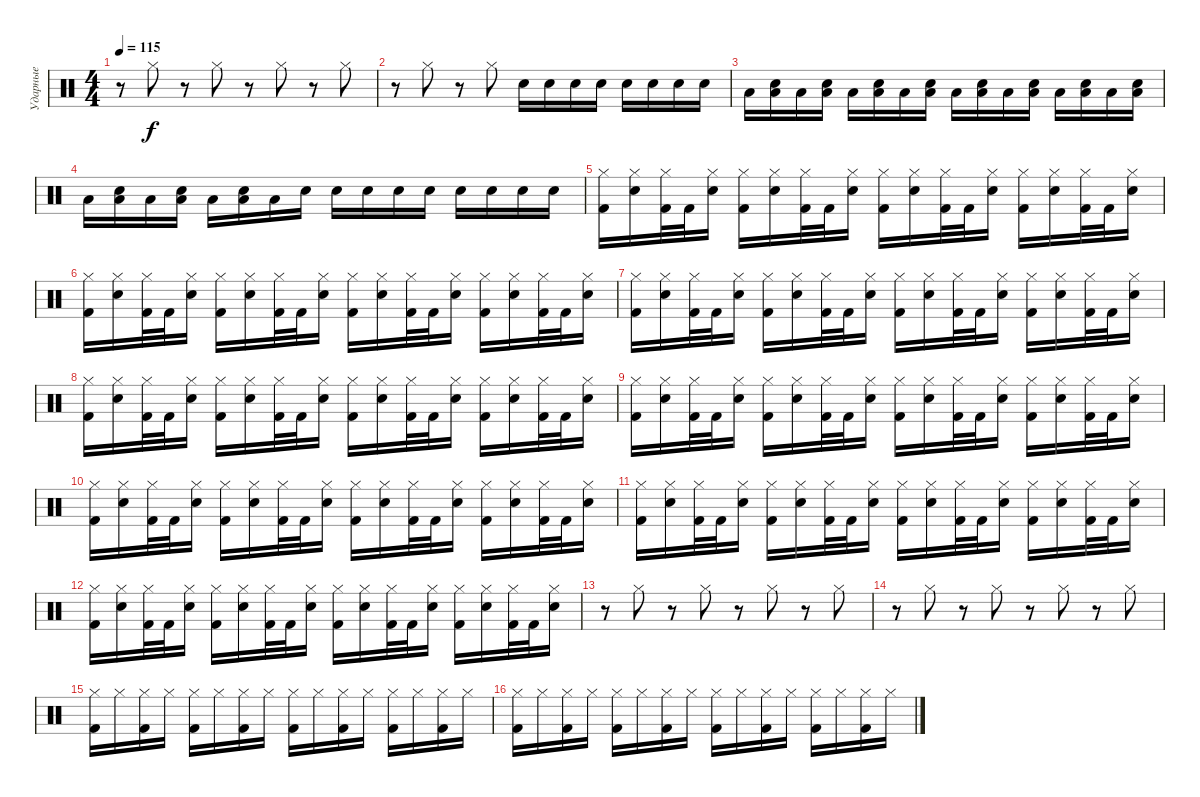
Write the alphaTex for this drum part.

\track ("Ударные" "Ударные") {instrument percussion}
\staff {score}
\articulation defaults
\ts (4 4)
\tempo 115
\clef neutral
\ks c
r.8{dy f} "Hi-Hat (closed)".8 r.8 "Hi-Hat (closed)".8 r.8 "Hi-Hat (closed)".8 r.8 "Hi-Hat (closed)".8 |
r.8 "Hi-Hat (closed)".8 r.8 "Hi-Hat (closed)".8 "Electric Snare (hit)".16 "Electric Snare (hit)".16 "Electric Snare (hit)".16 "Electric Snare (hit)".16 "Electric Snare (hit)".16 "Electric Snare (hit)".16 "Electric Snare (hit)".16 "Electric Snare (hit)".16 |
"Low Floor Tom (hit)".16 ("Low Floor Tom (hit)" "Electric Snare (hit)").16 "Low Floor Tom (hit)".16 ("Low Floor Tom (hit)" "Electric Snare (hit)").16 "Low Floor Tom (hit)".16 ("Low Floor Tom (hit)" "Electric Snare (hit)").16 "Low Floor Tom (hit)".16 ("Low Floor Tom (hit)" "Electric Snare (hit)").16 "Low Floor Tom (hit)".16 ("Low Floor Tom (hit)" "Electric Snare (hit)").16 "Low Floor Tom (hit)".16 ("Low Floor Tom (hit)" "Electric Snare (hit)").16 "Low Floor Tom (hit)".16 ("Low Floor Tom (hit)" "Electric Snare (hit)").16 "Low Floor Tom (hit)".16 ("Low Floor Tom (hit)" "Electric Snare (hit)").16 |
"Low Floor Tom (hit)".16 ("Low Floor Tom (hit)" "Electric Snare (hit)").16 "Low Floor Tom (hit)".16 ("Low Floor Tom (hit)" "Electric Snare (hit)").16 "Low Floor Tom (hit)".16 ("Low Floor Tom (hit)" "Electric Snare (hit)").16 "Low Floor Tom (hit)".16 "Electric Snare (hit)".16 "Electric Snare (hit)".16 "Electric Snare (hit)".16 "Electric Snare (hit)".16 "Electric Snare (hit)".16 "Electric Snare (hit)".16 "Electric Snare (hit)".16 "Electric Snare (hit)".16 "Electric Snare (hit)".16 |
("Hi-Hat (closed)" "Kick (hit) 2").16 ("Hi-Hat (closed)" "Electric Snare (hit)").16 ("Hi-Hat (closed)" "Kick (hit) 2").32 "Kick (hit) 2".32 ("Hi-Hat (closed)" "Electric Snare (hit)").16 ("Hi-Hat (closed)" "Kick (hit) 2").16 ("Hi-Hat (closed)" "Electric Snare (hit)").16 ("Hi-Hat (closed)" "Kick (hit) 2").32 "Kick (hit) 2".32 ("Hi-Hat (closed)" "Electric Snare (hit)").16 ("Hi-Hat (closed)" "Kick (hit) 2").16 ("Hi-Hat (closed)" "Electric Snare (hit)").16 ("Hi-Hat (closed)" "Kick (hit) 2").32 "Kick (hit) 2".32 ("Hi-Hat (closed)" "Electric Snare (hit)").16 ("Hi-Hat (closed)" "Kick (hit) 2").16 ("Hi-Hat (closed)" "Electric Snare (hit)").16 ("Hi-Hat (closed)" "Kick (hit) 2").32 "Kick (hit) 2".32 ("Hi-Hat (closed)" "Electric Snare (hit)").16 |
("Hi-Hat (closed)" "Kick (hit) 2").16 ("Hi-Hat (closed)" "Electric Snare (hit)").16 ("Hi-Hat (closed)" "Kick (hit) 2").32 "Kick (hit) 2".32 ("Hi-Hat (closed)" "Electric Snare (hit)").16 ("Hi-Hat (closed)" "Kick (hit) 2").16 ("Hi-Hat (closed)" "Electric Snare (hit)").16 ("Hi-Hat (closed)" "Kick (hit) 2").32 "Kick (hit) 2".32 ("Hi-Hat (closed)" "Electric Snare (hit)").16 ("Hi-Hat (closed)" "Kick (hit) 2").16 ("Hi-Hat (closed)" "Electric Snare (hit)").16 ("Hi-Hat (closed)" "Kick (hit) 2").32 "Kick (hit) 2".32 ("Hi-Hat (closed)" "Electric Snare (hit)").16 ("Hi-Hat (closed)" "Kick (hit) 2").16 ("Hi-Hat (closed)" "Electric Snare (hit)").16 ("Hi-Hat (closed)" "Kick (hit) 2").32 "Kick (hit) 2".32 ("Hi-Hat (closed)" "Electric Snare (hit)").16 |
("Hi-Hat (closed)" "Kick (hit) 2").16 ("Hi-Hat (closed)" "Electric Snare (hit)").16 ("Hi-Hat (closed)" "Kick (hit) 2").32 "Kick (hit) 2".32 ("Hi-Hat (closed)" "Electric Snare (hit)").16 ("Hi-Hat (closed)" "Kick (hit) 2").16 ("Hi-Hat (closed)" "Electric Snare (hit)").16 ("Hi-Hat (closed)" "Kick (hit) 2").32 "Kick (hit) 2".32 ("Hi-Hat (closed)" "Electric Snare (hit)").16 ("Hi-Hat (closed)" "Kick (hit) 2").16 ("Hi-Hat (closed)" "Electric Snare (hit)").16 ("Hi-Hat (closed)" "Kick (hit) 2").32 "Kick (hit) 2".32 ("Hi-Hat (closed)" "Electric Snare (hit)").16 ("Hi-Hat (closed)" "Kick (hit) 2").16 ("Hi-Hat (closed)" "Electric Snare (hit)").16 ("Hi-Hat (closed)" "Kick (hit) 2").32 "Kick (hit) 2".32 ("Hi-Hat (closed)" "Electric Snare (hit)").16 |
("Hi-Hat (closed)" "Kick (hit) 2").16 ("Hi-Hat (closed)" "Electric Snare (hit)").16 ("Hi-Hat (closed)" "Kick (hit) 2").32 "Kick (hit) 2".32 ("Hi-Hat (closed)" "Electric Snare (hit)").16 ("Hi-Hat (closed)" "Kick (hit) 2").16 ("Hi-Hat (closed)" "Electric Snare (hit)").16 ("Hi-Hat (closed)" "Kick (hit) 2").32 "Kick (hit) 2".32 ("Hi-Hat (closed)" "Electric Snare (hit)").16 ("Hi-Hat (closed)" "Kick (hit) 2").16 ("Hi-Hat (closed)" "Electric Snare (hit)").16 ("Hi-Hat (closed)" "Kick (hit) 2").32 "Kick (hit) 2".32 ("Hi-Hat (closed)" "Electric Snare (hit)").16 ("Hi-Hat (closed)" "Kick (hit) 2").16 ("Hi-Hat (closed)" "Electric Snare (hit)").16 ("Hi-Hat (closed)" "Kick (hit) 2").32 "Kick (hit) 2".32 ("Hi-Hat (closed)" "Electric Snare (hit)").16 |
("Hi-Hat (closed)" "Kick (hit) 2").16 ("Hi-Hat (closed)" "Electric Snare (hit)").16 ("Hi-Hat (closed)" "Kick (hit) 2").32 "Kick (hit) 2".32 ("Hi-Hat (closed)" "Electric Snare (hit)").16 ("Hi-Hat (closed)" "Kick (hit) 2").16 ("Hi-Hat (closed)" "Electric Snare (hit)").16 ("Hi-Hat (closed)" "Kick (hit) 2").32 "Kick (hit) 2".32 ("Hi-Hat (closed)" "Electric Snare (hit)").16 ("Hi-Hat (closed)" "Kick (hit) 2").16 ("Hi-Hat (closed)" "Electric Snare (hit)").16 ("Hi-Hat (closed)" "Kick (hit) 2").32 "Kick (hit) 2".32 ("Hi-Hat (closed)" "Electric Snare (hit)").16 ("Hi-Hat (closed)" "Kick (hit) 2").16 ("Hi-Hat (closed)" "Electric Snare (hit)").16 ("Hi-Hat (closed)" "Kick (hit) 2").32 "Kick (hit) 2".32 ("Hi-Hat (closed)" "Electric Snare (hit)").16 |
("Hi-Hat (closed)" "Kick (hit) 2").16 ("Hi-Hat (closed)" "Electric Snare (hit)").16 ("Hi-Hat (closed)" "Kick (hit) 2").32 "Kick (hit) 2".32 ("Hi-Hat (closed)" "Electric Snare (hit)").16 ("Hi-Hat (closed)" "Kick (hit) 2").16 ("Hi-Hat (closed)" "Electric Snare (hit)").16 ("Hi-Hat (closed)" "Kick (hit) 2").32 "Kick (hit) 2".32 ("Hi-Hat (closed)" "Electric Snare (hit)").16 ("Hi-Hat (closed)" "Kick (hit) 2").16 ("Hi-Hat (closed)" "Electric Snare (hit)").16 ("Hi-Hat (closed)" "Kick (hit) 2").32 "Kick (hit) 2".32 ("Hi-Hat (closed)" "Electric Snare (hit)").16 ("Hi-Hat (closed)" "Kick (hit) 2").16 ("Hi-Hat (closed)" "Electric Snare (hit)").16 ("Hi-Hat (closed)" "Kick (hit) 2").32 "Kick (hit) 2".32 ("Hi-Hat (closed)" "Electric Snare (hit)").16 |
("Hi-Hat (closed)" "Kick (hit) 2").16 ("Hi-Hat (closed)" "Electric Snare (hit)").16 ("Hi-Hat (closed)" "Kick (hit) 2").32 "Kick (hit) 2".32 ("Hi-Hat (closed)" "Electric Snare (hit)").16 ("Hi-Hat (closed)" "Kick (hit) 2").16 ("Hi-Hat (closed)" "Electric Snare (hit)").16 ("Hi-Hat (closed)" "Kick (hit) 2").32 "Kick (hit) 2".32 ("Hi-Hat (closed)" "Electric Snare (hit)").16 ("Hi-Hat (closed)" "Kick (hit) 2").16 ("Hi-Hat (closed)" "Electric Snare (hit)").16 ("Hi-Hat (closed)" "Kick (hit) 2").32 "Kick (hit) 2".32 ("Hi-Hat (closed)" "Electric Snare (hit)").16 ("Hi-Hat (closed)" "Kick (hit) 2").16 ("Hi-Hat (closed)" "Electric Snare (hit)").16 ("Hi-Hat (closed)" "Kick (hit) 2").32 "Kick (hit) 2".32 ("Hi-Hat (closed)" "Electric Snare (hit)").16 |
("Hi-Hat (closed)" "Kick (hit) 2").16 ("Hi-Hat (closed)" "Electric Snare (hit)").16 ("Hi-Hat (closed)" "Kick (hit) 2").32 "Kick (hit) 2".32 ("Hi-Hat (closed)" "Electric Snare (hit)").16 ("Hi-Hat (closed)" "Kick (hit) 2").16 ("Hi-Hat (closed)" "Electric Snare (hit)").16 ("Hi-Hat (closed)" "Kick (hit) 2").32 "Kick (hit) 2".32 ("Hi-Hat (closed)" "Electric Snare (hit)").16 ("Hi-Hat (closed)" "Kick (hit) 2").16 ("Hi-Hat (closed)" "Electric Snare (hit)").16 ("Hi-Hat (closed)" "Kick (hit) 2").32 "Kick (hit) 2".32 ("Hi-Hat (closed)" "Electric Snare (hit)").16 ("Hi-Hat (closed)" "Kick (hit) 2").16 ("Hi-Hat (closed)" "Electric Snare (hit)").16 ("Hi-Hat (closed)" "Kick (hit) 2").32 "Kick (hit) 2".32 ("Hi-Hat (closed)" "Electric Snare (hit)").16 |
r.8 "Hi-Hat (closed)".8 r.8 "Hi-Hat (closed)".8 r.8 "Hi-Hat (closed)".8 r.8 "Hi-Hat (closed)".8 |
r.8 "Hi-Hat (closed)".8 r.8 "Hi-Hat (closed)".8 r.8 "Hi-Hat (closed)".8 r.8 "Hi-Hat (closed)".8 |
("Hi-Hat (closed)" "Kick (hit) 2").16 "Hi-Hat (closed)".16 ("Hi-Hat (closed)" "Kick (hit) 2").16 "Hi-Hat (closed)".16 ("Hi-Hat (closed)" "Kick (hit) 2").16 "Hi-Hat (closed)".16 ("Hi-Hat (closed)" "Kick (hit) 2").16 "Hi-Hat (closed)".16 ("Hi-Hat (closed)" "Kick (hit) 2").16 "Hi-Hat (closed)".16 ("Hi-Hat (closed)" "Kick (hit) 2").16 "Hi-Hat (closed)".16 ("Hi-Hat (closed)" "Kick (hit) 2").16 "Hi-Hat (closed)".16 ("Hi-Hat (closed)" "Kick (hit) 2").16 "Hi-Hat (closed)".16 |
("Hi-Hat (closed)" "Kick (hit) 2").16 "Hi-Hat (closed)".16 ("Hi-Hat (closed)" "Kick (hit) 2").16 "Hi-Hat (closed)".16 ("Hi-Hat (closed)" "Kick (hit) 2").16 "Hi-Hat (closed)".16 ("Hi-Hat (closed)" "Kick (hit) 2").16 "Hi-Hat (closed)".16 ("Hi-Hat (closed)" "Kick (hit) 2").16 "Hi-Hat (closed)".16 ("Hi-Hat (closed)" "Kick (hit) 2").16 "Hi-Hat (closed)".16 ("Hi-Hat (closed)" "Kick (hit) 2").16 "Hi-Hat (closed)".16 ("Hi-Hat (closed)" "Kick (hit) 2").16 "Hi-Hat (closed)".16
